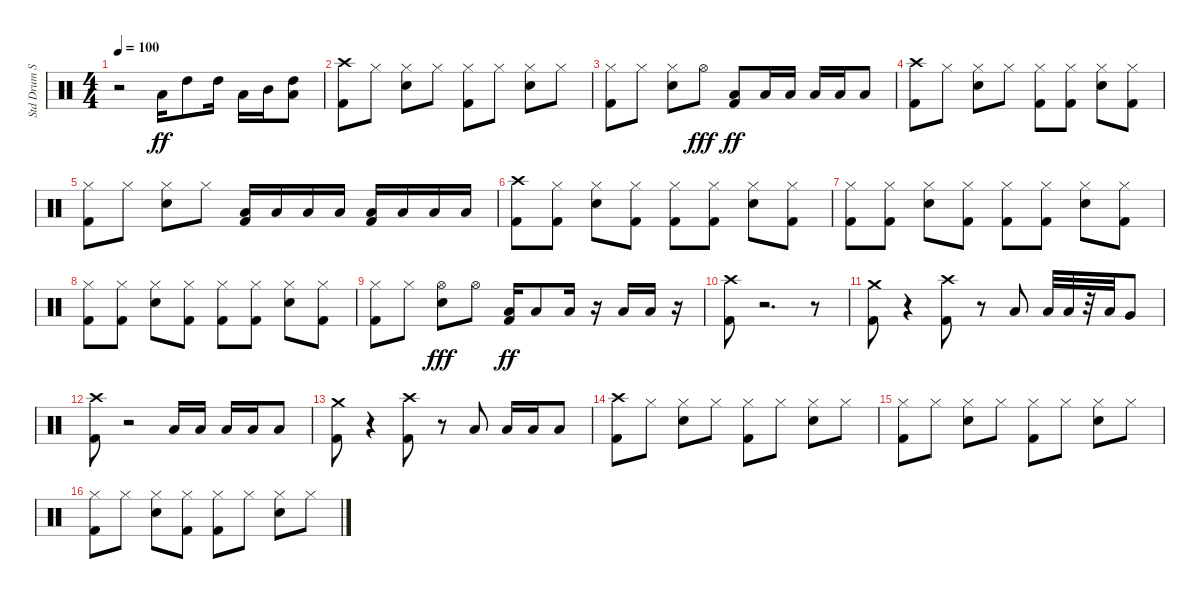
\track ("Std Drum Set" "Std Drum S") {instrument percussion}
\staff {score}
\articulation defaults
\ts (4 4)
\tempo 100
\clef neutral
\ks c
r.2{dy ff} "Low Tom (hit)".16 "High Tom (hit)".8 "High Tom (hit)".16 "Low Tom (hit)".16 "Mid Tom (hit)".16 ("Low Tom (hit)" "High Tom (hit)").8 |
("Kick (hit) 2" "Crash high (hit)").8 "Hi-Hat (closed)".8 ("Hi-Hat (closed)" "Snare (hit) 2").8 "Hi-Hat (closed)".8 ("Hi-Hat (closed)" "Kick (hit) 2").8 "Hi-Hat (closed)".8 ("Hi-Hat (closed)" "Snare (hit) 2").8 "Hi-Hat (closed)".8 |
("Kick (hit) 2" "Hi-Hat (closed)").8 "Hi-Hat (closed)".8 ("Snare (hit) 2" "Hi-Hat (closed)").8 "Hi-Hat (open)".8{dy fff} ("Kick (hit) 2" "Low Tom (hit)").8{dy ff} "Low Floor Tom (hit)".16 "Low Floor Tom (hit)".16 "Low Floor Tom (hit)".16 "Low Floor Tom (hit)".16 "Low Floor Tom (hit)".8 |
("Kick (hit) 2" "Crash high (hit)").8 "Hi-Hat (closed)".8 ("Hi-Hat (closed)" "Snare (hit) 2").8 "Hi-Hat (closed)".8 ("Kick (hit) 2" "Hi-Hat (closed)").8 ("Kick (hit) 2" "Hi-Hat (closed)").8 ("Snare (hit) 2" "Hi-Hat (closed)").8 ("Kick (hit) 2" "Hi-Hat (closed)").8 |
("Kick (hit) 2" "Hi-Hat (closed)").8 "Hi-Hat (closed)".8 ("Snare (hit) 2" "Hi-Hat (closed)").8 "Hi-Hat (closed)".8 ("Kick (hit) 2" "Low Tom (hit)").16 "Low Tom (hit)".16 "Low Tom (hit)".16 "Low Tom (hit)".16 ("Low Tom (hit)" "Kick (hit) 2").16 "Low Tom (hit)".16 "Low Tom (hit)".16 "Low Tom (hit)".16 |
("Crash high (hit)" "Kick (hit) 2").8 ("Hi-Hat (closed)" "Kick (hit) 2").8 ("Snare (hit) 2" "Hi-Hat (closed)").8 ("Hi-Hat (closed)" "Kick (hit) 2").8 ("Hi-Hat (closed)" "Kick (hit) 2").8 ("Kick (hit) 2" "Hi-Hat (closed)").8 ("Snare (hit) 2" "Hi-Hat (closed)").8 ("Kick (hit) 2" "Hi-Hat (closed)").8 |
("Hi-Hat (closed)" "Kick (hit) 2").8 ("Hi-Hat (closed)" "Kick (hit) 2").8 ("Snare (hit) 2" "Hi-Hat (closed)").8 ("Kick (hit) 2" "Hi-Hat (closed)").8 ("Hi-Hat (closed)" "Kick (hit) 2").8 ("Kick (hit) 2" "Hi-Hat (closed)").8 ("Hi-Hat (closed)" "Snare (hit) 2").8 ("Hi-Hat (closed)" "Kick (hit) 2").8 |
("Hi-Hat (closed)" "Kick (hit) 2").8 ("Hi-Hat (closed)" "Kick (hit) 2").8 ("Snare (hit) 2" "Hi-Hat (closed)").8 ("Kick (hit) 2" "Hi-Hat (closed)").8 ("Hi-Hat (closed)" "Kick (hit) 2").8 ("Hi-Hat (closed)" "Kick (hit) 2").8 ("Snare (hit) 2" "Hi-Hat (closed)").8 ("Hi-Hat (closed)" "Kick (hit) 2").8 |
("Kick (hit) 2" "Hi-Hat (closed)").8 "Hi-Hat (closed)".8 ("Snare (hit) 2" "Hi-Hat (open)").8{dy fff} "Hi-Hat (open)".8 ("Kick (hit) 2" "Low Tom (hit)").16{dy ff} "Low Tom (hit)".8 "Low Tom (hit)".16 r.16 "Low Floor Tom (hit)".16 "Low Floor Tom (hit)".16 r.16 |
("Kick (hit) 2" "Crash high (hit)").8 r.2{d} r.8 |
("Kick (hit) 2" "Crash medium (hit)").8 r.4 ("Kick (hit) 2" "Crash high (hit)").8 r.8 "Low Tom (hit)".8 "Low Floor Tom (hit)".32 "Low Floor Tom (hit)".32 r.32 "Low Floor Tom (hit)".32 "Very Low Tom (hit)".8 |
("Crash high (hit)" "Kick (hit) 2").8 r.2 "Low Floor Tom (hit)".16 "Low Floor Tom (hit)".16 "Low Floor Tom (hit)".16 "Low Floor Tom (hit)".16 "Low Floor Tom (hit)".8 |
("Kick (hit) 2" "Crash medium (hit)").8 r.4 ("Kick (hit) 2" "Crash high (hit)").8 r.8 "Low Floor Tom (hit)".8 "Low Floor Tom (hit)".16 "Low Floor Tom (hit)".16 "Low Floor Tom (hit)".8 |
("Kick (hit) 2" "Crash high (hit)").8 "Hi-Hat (closed)".8 ("Hi-Hat (closed)" "Snare (hit) 2").8 "Hi-Hat (closed)".8 ("Kick (hit) 2" "Hi-Hat (closed)").8 "Hi-Hat (closed)".8 ("Snare (hit) 2" "Hi-Hat (closed)").8 "Hi-Hat (closed)".8 |
("Hi-Hat (closed)" "Kick (hit) 2").8 "Hi-Hat (closed)".8 ("Hi-Hat (closed)" "Snare (hit) 2").8 "Hi-Hat (closed)".8 ("Hi-Hat (closed)" "Kick (hit) 2").8 "Hi-Hat (closed)".8 ("Hi-Hat (closed)" "Snare (hit) 2").8 "Hi-Hat (closed)".8 |
("Kick (hit) 2" "Hi-Hat (closed)").8 "Hi-Hat (closed)".8 ("Hi-Hat (closed)" "Snare (hit) 2").8 ("Hi-Hat (closed)" "Kick (hit) 2").8 ("Hi-Hat (closed)" "Kick (hit) 2").8 "Hi-Hat (closed)".8 ("Hi-Hat (closed)" "Snare (hit) 2").8 "Hi-Hat (closed)".8
